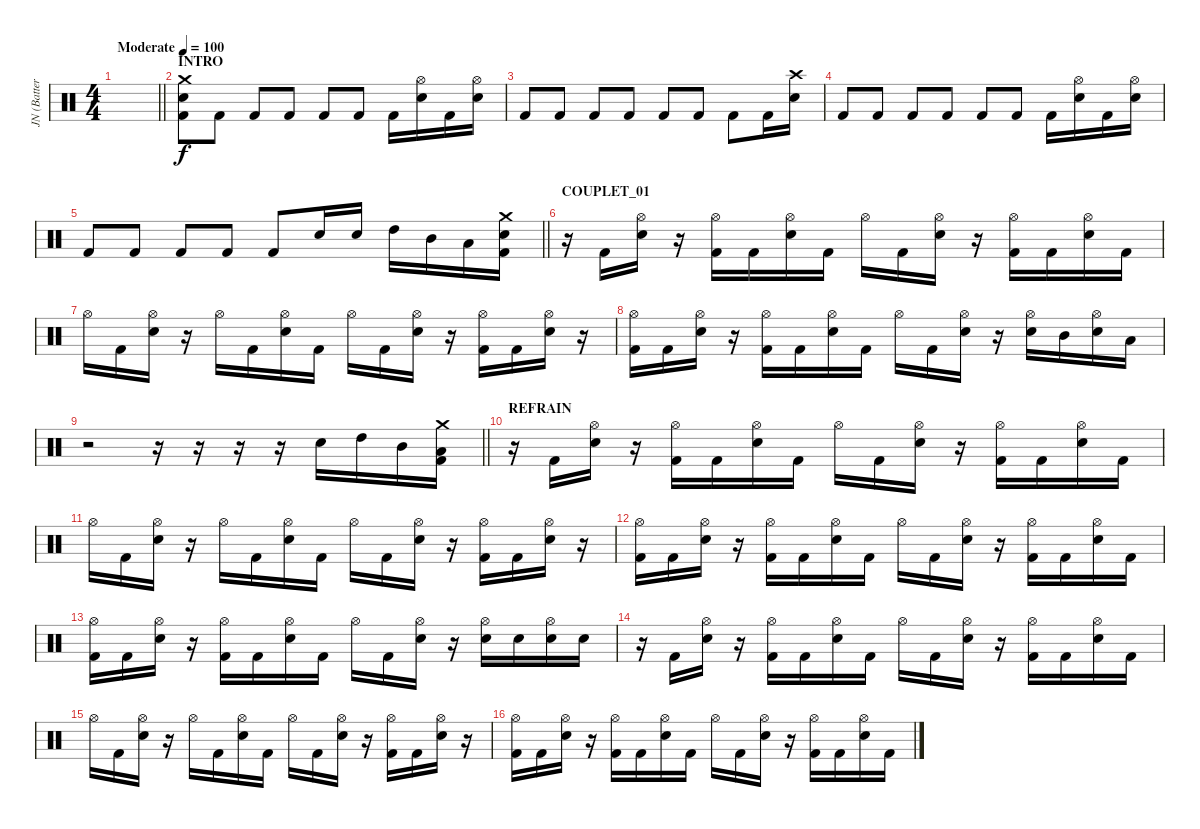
\track ("JN (Batterie)" "JN (Batter") {instrument percussion}
\staff {score}
\articulation defaults
\ts (4 4)
\tempo (100 "Moderate")
\clef neutral
\barLineRight lightlight
\ks c
|
\section ("" "INTRO")
("Crash medium (hit)" "Electric Snare (hit)" "Kick (hit) 2").8 "Kick (hit) 2".8 "Kick (hit) 2".8 "Kick (hit) 2".8 "Kick (hit) 2".8 "Kick (hit) 2".8 "Kick (hit) 2".16 ("Hi-Hat (open)" "Electric Snare (hit)").16 "Kick (hit) 2".16 ("Hi-Hat (open)" "Electric Snare (hit)").16 |
"Kick (hit) 2".8 "Kick (hit) 2".8 "Kick (hit) 2".8 "Kick (hit) 2".8 "Kick (hit) 2".8 "Kick (hit) 2".8 "Kick (hit) 2".8 "Kick (hit) 2".16 ("Crash high (hit)" "Electric Snare (hit)").16 |
"Kick (hit) 2".8 "Kick (hit) 2".8 "Kick (hit) 2".8 "Kick (hit) 2".8 "Kick (hit) 2".8 "Kick (hit) 2".8 "Kick (hit) 2".16 ("Hi-Hat (open)" "Electric Snare (hit)").16 "Kick (hit) 2".16 ("Hi-Hat (open)" "Electric Snare (hit)").16 |
\barLineRight lightlight "Kick (hit) 2".8 "Kick (hit) 2".8 "Kick (hit) 2".8 "Kick (hit) 2".8 "Kick (hit) 2".8 "Electric Snare (hit)".16 "Electric Snare (hit)".16 "High Tom (hit)".16 "Mid Tom (hit)".16 "Low Tom (hit)".16
("Crash medium (hit)" "Electric Snare (hit)" "Kick (hit) 2").16 |
\section ("" "COUPLET_01")
r.16 "Kick (hit) 2".16 ("Hi-Hat (open)" "Electric Snare (hit)").16 r.16 ("Hi-Hat (open)" "Kick (hit) 2").16 "Kick (hit) 2".16 ("Hi-Hat (open)" "Electric Snare (hit)").16 "Kick (hit) 2".16 "Hi-Hat (open)".16 "Kick (hit) 2".16 ("Hi-Hat (open)" "Electric Snare (hit)").16 r.16 ("Hi-Hat (open)" "Kick (hit) 2").16 "Kick (hit) 2".16 ("Hi-Hat (open)" "Electric Snare (hit)").16 "Kick (hit) 2".16 |
"Hi-Hat (open)".16 "Kick (hit) 2".16 ("Hi-Hat (open)" "Electric Snare (hit)").16 r.16 "Hi-Hat (open)".16 "Kick (hit) 2".16 ("Hi-Hat (open)" "Electric Snare (hit)").16 "Kick (hit) 2".16 "Hi-Hat (open)".16 "Kick (hit) 2".16 ("Hi-Hat (open)" "Electric Snare (hit)").16 r.16 ("Hi-Hat (open)" "Kick (hit) 2").16 "Kick (hit) 2".16 ("Hi-Hat (open)" "Electric Snare (hit)").16 r.16 |
("Hi-Hat (open)" "Kick (hit) 2").16 "Kick (hit) 2".16 ("Hi-Hat (open)" "Electric Snare (hit)").16 r.16 ("Hi-Hat (open)" "Kick (hit) 2").16 "Kick (hit) 2".16 ("Hi-Hat (open)" "Electric Snare (hit)").16 "Kick (hit) 2".16 "Hi-Hat (open)".16 "Kick (hit) 2".16 ("Hi-Hat (open)" "Electric Snare (hit)").16 r.16 ("Hi-Hat (open)" "Electric Snare (hit)").16 "Mid Tom (hit)".16 ("Hi-Hat (open)" "Electric Snare (hit)").16 "Low Tom (hit)".16 |
\barLineRight lightlight
r.2 r.16 r.16 r.16 r.16 "Electric Snare (hit)".16 "High Tom (hit)".16 "Mid Tom (hit)".16 ("Crash medium (hit)" "Low Tom (hit)" "Kick (hit) 2").16 |
\section ("" "REFRAIN")
r.16 "Kick (hit) 2".16 ("Hi-Hat (open)" "Electric Snare (hit)").16 r.16 ("Hi-Hat (open)" "Kick (hit) 2").16 "Kick (hit) 2".16 ("Hi-Hat (open)" "Electric Snare (hit)").16 "Kick (hit) 2".16 "Hi-Hat (open)".16 "Kick (hit) 2".16 ("Hi-Hat (open)" "Electric Snare (hit)").16 r.16 ("Hi-Hat (open)" "Kick (hit) 2").16 "Kick (hit) 2".16 ("Hi-Hat (open)" "Electric Snare (hit)").16 "Kick (hit) 2".16 |
"Hi-Hat (open)".16 "Kick (hit) 2".16 ("Hi-Hat (open)" "Electric Snare (hit)").16 r.16 "Hi-Hat (open)".16 "Kick (hit) 2".16 ("Hi-Hat (open)" "Electric Snare (hit)").16 "Kick (hit) 2".16 "Hi-Hat (open)".16 "Kick (hit) 2".16 ("Hi-Hat (open)" "Electric Snare (hit)").16 r.16 ("Hi-Hat (open)" "Kick (hit) 2").16 "Kick (hit) 2".16 ("Hi-Hat (open)" "Electric Snare (hit)").16 r.16 |
("Hi-Hat (open)" "Kick (hit) 2").16 "Kick (hit) 2".16 ("Hi-Hat (open)" "Electric Snare (hit)").16 r.16 ("Hi-Hat (open)" "Kick (hit) 2").16 "Kick (hit) 2".16 ("Hi-Hat (open)" "Electric Snare (hit)").16 "Kick (hit) 2".16 "Hi-Hat (open)".16 "Kick (hit) 2".16 ("Hi-Hat (open)" "Electric Snare (hit)").16 r.16 ("Hi-Hat (open)" "Kick (hit) 2").16 "Kick (hit) 2".16 ("Hi-Hat (open)" "Electric Snare (hit)").16 "Kick (hit) 2".16 |
("Hi-Hat (open)" "Kick (hit) 2").16 "Kick (hit) 2".16 ("Hi-Hat (open)" "Electric Snare (hit)").16 r.16 ("Hi-Hat (open)" "Kick (hit) 2").16 "Kick (hit) 2".16 ("Hi-Hat (open)" "Electric Snare (hit)").16 "Kick (hit) 2".16 "Hi-Hat (open)".16 "Kick (hit) 2".16 ("Hi-Hat (open)" "Electric Snare (hit)").16 r.16 ("Hi-Hat (open)" "Electric Snare (hit)").16 "Electric Snare (hit)".16 ("Hi-Hat (open)" "Electric Snare (hit)").16 "Electric Snare (hit)".16 |
r.16 "Kick (hit) 2".16 ("Hi-Hat (open)" "Electric Snare (hit)").16 r.16 ("Hi-Hat (open)" "Kick (hit) 2").16 "Kick (hit) 2".16 ("Hi-Hat (open)" "Electric Snare (hit)").16 "Kick (hit) 2".16 "Hi-Hat (open)".16 "Kick (hit) 2".16 ("Hi-Hat (open)" "Electric Snare (hit)").16 r.16 ("Hi-Hat (open)" "Kick (hit) 2").16 "Kick (hit) 2".16 ("Hi-Hat (open)" "Electric Snare (hit)").16 "Kick (hit) 2".16 |
"Hi-Hat (open)".16 "Kick (hit) 2".16 ("Hi-Hat (open)" "Electric Snare (hit)").16 r.16 "Hi-Hat (open)".16 "Kick (hit) 2".16 ("Hi-Hat (open)" "Electric Snare (hit)").16 "Kick (hit) 2".16 "Hi-Hat (open)".16 "Kick (hit) 2".16 ("Hi-Hat (open)" "Electric Snare (hit)").16 r.16 ("Hi-Hat (open)" "Kick (hit) 2").16 "Kick (hit) 2".16 ("Hi-Hat (open)" "Electric Snare (hit)").16 r.16 |
("Hi-Hat (open)" "Kick (hit) 2").16 "Kick (hit) 2".16 ("Hi-Hat (open)" "Electric Snare (hit)").16 r.16 ("Hi-Hat (open)" "Kick (hit) 2").16 "Kick (hit) 2".16 ("Hi-Hat (open)" "Electric Snare (hit)").16 "Kick (hit) 2".16 "Hi-Hat (open)".16 "Kick (hit) 2".16 ("Hi-Hat (open)" "Electric Snare (hit)").16 r.16 ("Hi-Hat (open)" "Kick (hit) 2").16 "Kick (hit) 2".16 ("Hi-Hat (open)" "Electric Snare (hit)").16 "Kick (hit) 2".16
